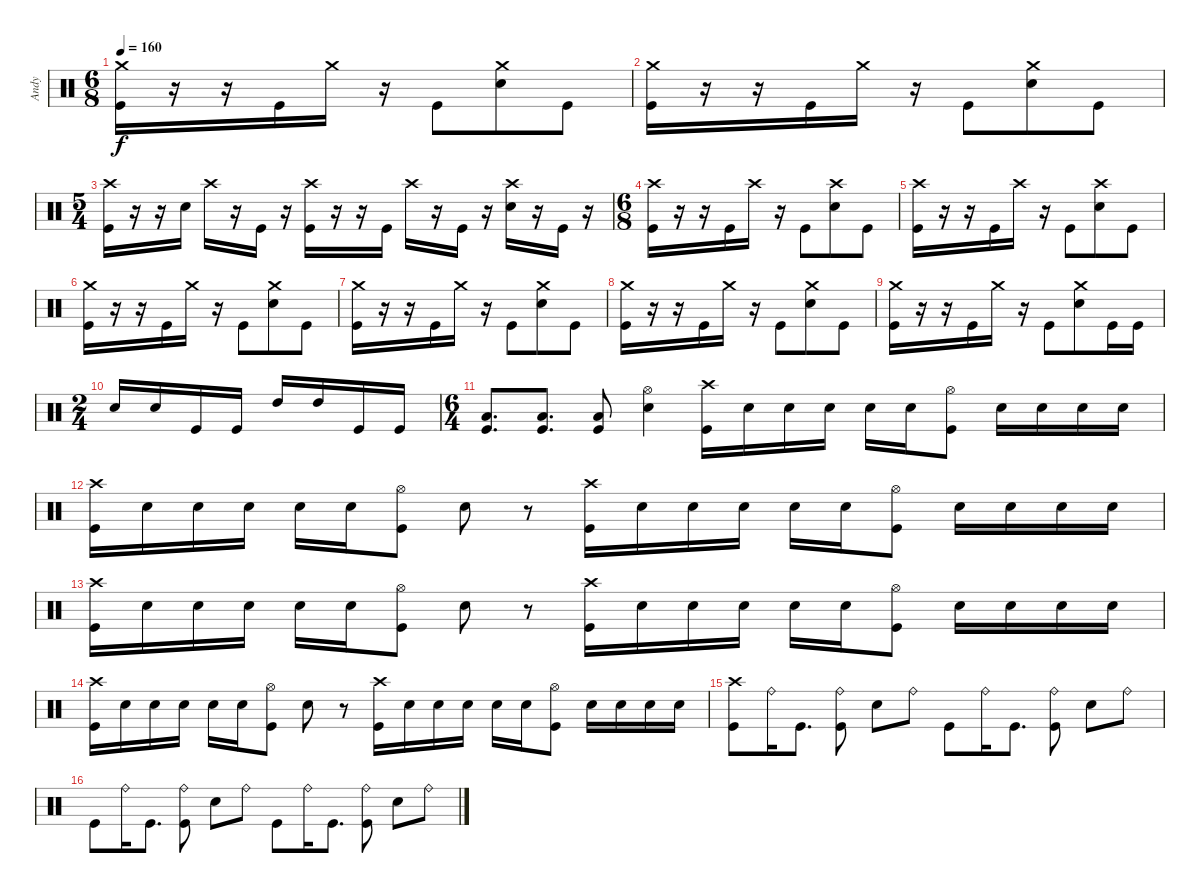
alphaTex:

\track ("Andy" "Andy") {instrument percussion}
\staff {score}
\articulation defaults
\ts (6 8)
\tempo 160
\clef neutral
\ks c
("Crash medium (hit)" "Kick (hit)").16{dy f} r.16 r.16 "Kick (hit)".16 "Crash medium (hit)".16 r.16 "Kick (hit)".8 ("Snare (hit) 2" "Crash medium (hit)").8 "Kick (hit)".8 |
("Crash medium (hit)" "Kick (hit)").16 r.16 r.16 "Kick (hit)".16 "Crash medium (hit)".16 r.16 "Kick (hit)".8 ("Snare (hit) 2" "Crash medium (hit)").8 "Kick (hit)".8 |
\ts (5 4)
("Kick (hit)" "Crash high (hit)").16 r.16 r.16 "Snare (hit) 2".16 "Crash high (hit)".16 r.16 "Kick (hit)".16 r.16 ("Crash high (hit)" "Kick (hit)").16 r.16 r.16 "Kick (hit)".16 "Crash high (hit)".16 r.16 "Kick (hit)".16 r.16 ("Crash high (hit)" "Snare (hit) 2").16 r.16 "Kick (hit)".16 r.16 |
\ts (6 8)
("Crash high (hit)" "Kick (hit)").16 r.16 r.16 "Kick (hit)".16 "Crash high (hit)".16 r.16 "Kick (hit)".8 ("Snare (hit) 2" "Crash high (hit)").8 "Kick (hit)".8 |
("Crash high (hit)" "Kick (hit)").16 r.16 r.16 "Kick (hit)".16 "Crash high (hit)".16 r.16 "Kick (hit)".8 ("Snare (hit) 2" "Crash high (hit)").8 "Kick (hit)".8 |
("Crash medium (hit)" "Kick (hit)").16 r.16 r.16 "Kick (hit)".16 "Crash medium (hit)".16 r.16 "Kick (hit)".8 ("Snare (hit) 2" "Crash medium (hit)").8 "Kick (hit)".8 |
("Crash medium (hit)" "Kick (hit)").16 r.16 r.16 "Kick (hit)".16 "Crash medium (hit)".16 r.16 "Kick (hit)".8 ("Snare (hit) 2" "Crash medium (hit)").8 "Kick (hit)".8 |
("Crash medium (hit)" "Kick (hit)").16 r.16 r.16 "Kick (hit)".16 "Crash medium (hit)".16 r.16 "Kick (hit)".8 ("Snare (hit) 2" "Crash medium (hit)").8 "Kick (hit)".8 |
("Crash medium (hit)" "Kick (hit)").16 r.16 r.16 "Kick (hit)".16 "Crash medium (hit)".16 r.16 "Kick (hit)".8 ("Snare (hit) 2" "Crash medium (hit)").8 "Kick (hit)".16 "Kick (hit)".16 |
\ts (2 4)
"Snare (hit) 2".16 "Snare (hit) 2".16 "Kick (hit)".16 "Kick (hit)".16 "High Tom (hit)".16 "High Tom (hit)".16 "Kick (hit)".16 "Kick (hit)".16 |
\ts (6 4)
("Kick (hit)" "Low Floor Tom (hit)").8{d} ("Kick (hit)" "Low Floor Tom (hit)").8{d} ("Kick (hit)" "Low Floor Tom (hit)").8 ("Snare (hit) 2" "Hi-Hat (open)").4 ("Kick (hit)" "Crash high (hit)").16 "Snare (hit) 2".16 "Snare (hit) 2".16 "Snare (hit) 2".16 "Snare (hit) 2".16 "Snare (hit) 2".16 ("Kick (hit)" "Hi-Hat (open)").8 "Snare (hit) 2".16 "Snare (hit) 2".16 "Snare (hit) 2".16 "Snare (hit) 2".16 |
("Kick (hit)" "Crash high (hit)").16 "Snare (hit) 2".16 "Snare (hit) 2".16 "Snare (hit) 2".16 "Snare (hit) 2".16 "Snare (hit) 2".16 ("Kick (hit)" "Hi-Hat (open)").8 "Snare (hit) 2".8 r.8 ("Kick (hit)" "Crash high (hit)").16 "Snare (hit) 2".16 "Snare (hit) 2".16 "Snare (hit) 2".16 "Snare (hit) 2".16 "Snare (hit) 2".16 ("Kick (hit)" "Hi-Hat (open)").8 "Snare (hit) 2".16 "Snare (hit) 2".16 "Snare (hit) 2".16 "Snare (hit) 2".16 |
("Kick (hit)" "Crash high (hit)").16 "Snare (hit) 2".16 "Snare (hit) 2".16 "Snare (hit) 2".16 "Snare (hit) 2".16 "Snare (hit) 2".16 ("Kick (hit)" "Hi-Hat (open)").8 "Snare (hit) 2".8 r.8 ("Kick (hit)" "Crash high (hit)").16 "Snare (hit) 2".16 "Snare (hit) 2".16 "Snare (hit) 2".16 "Snare (hit) 2".16 "Snare (hit) 2".16 ("Kick (hit)" "Hi-Hat (open)").8 "Snare (hit) 2".16 "Snare (hit) 2".16 "Snare (hit) 2".16 "Snare (hit) 2".16 |
("Kick (hit)" "Crash high (hit)").16 "Snare (hit) 2".16 "Snare (hit) 2".16 "Snare (hit) 2".16 "Snare (hit) 2".16 "Snare (hit) 2".16 ("Kick (hit)" "Hi-Hat (open)").8 "Snare (hit) 2".8 r.8 ("Kick (hit)" "Crash high (hit)").16 "Snare (hit) 2".16 "Snare (hit) 2".16 "Snare (hit) 2".16 "Snare (hit) 2".16 "Snare (hit) 2".16 ("Kick (hit)" "Hi-Hat (open)").8 "Snare (hit) 2".16 "Snare (hit) 2".16 "Snare (hit) 2".16 "Snare (hit) 2".16 |
("Kick (hit)" "Crash high (hit)").8 "Ride (bell)".16 "Kick (hit)".8{d} ("Ride (bell)" "Kick (hit)").8 "Snare (hit) 2".8 "Ride (bell)".8 "Kick (hit)".8 "Ride (bell)".16 "Kick (hit)".8{d} ("Ride (bell)" "Kick (hit)").8 "Snare (hit) 2".8 "Ride (bell)".8 |
"Kick (hit)".8 "Ride (bell)".16 "Kick (hit)".8{d} ("Ride (bell)" "Kick (hit)").8 "Snare (hit) 2".8 "Ride (bell)".8 "Kick (hit)".8 "Ride (bell)".16 "Kick (hit)".8{d} ("Ride (bell)" "Kick (hit)").8 "Snare (hit) 2".8 "Ride (bell)".8
